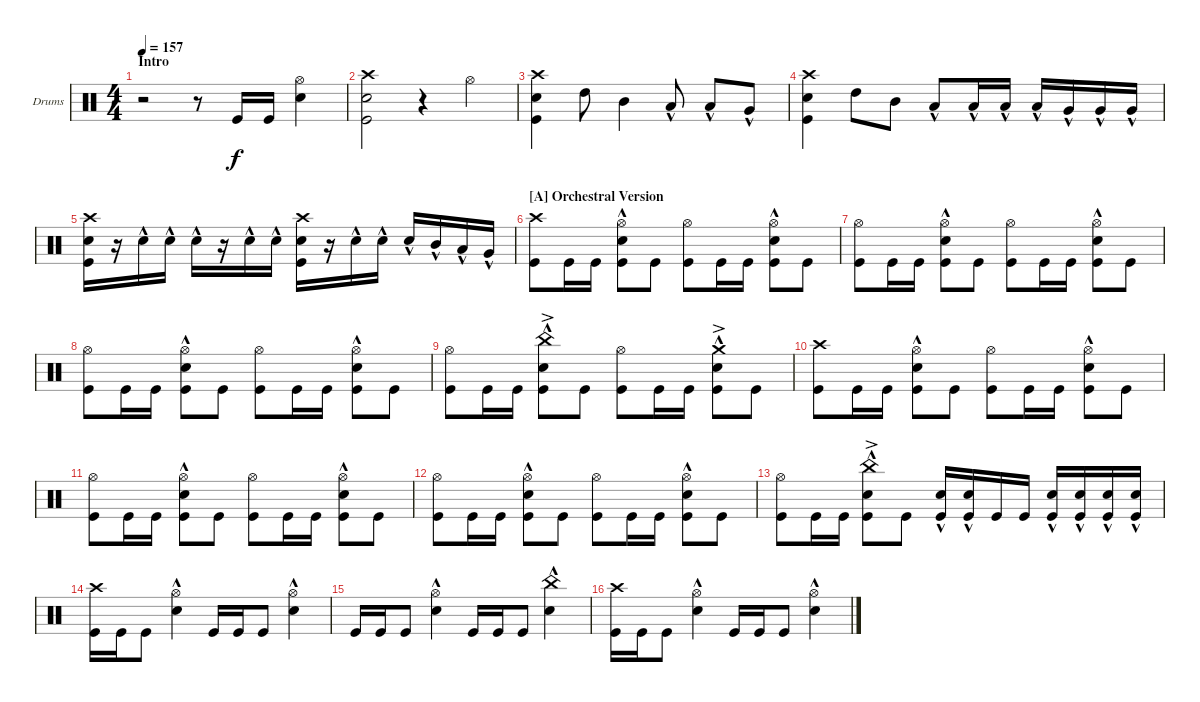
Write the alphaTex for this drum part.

\defaultSystemsLayout 4
\bracketExtendMode groupsimilarinstruments
\firstSystemTrackNameOrientation horizontal
\otherSystemsTrackNameOrientation horizontal
\track ("Drumkit - Natsu" "Drums") {instrument percussion}
\staff {score}
\articulation defaults
\ts (4 4)
\section ("" "Intro")
\tempo 157
\clef neutral
\ks c
r.2{dy f} r.8 "Kick (hit)".16 "Kick (hit)".16 ("Snare (hit) 2" "Hi-Hat (open)").4 |
("Crash high (hit)" "Snare (hit) 2" "Kick (hit)").2 r.4 "Hi-Hat (open)".4 |
("Kick (hit)" "Snare (hit) 2" "Crash high (hit)").4 "High Tom (hit)".8 "Mid Tom (hit)".4 "Low Tom (hit)"{hac}.8 "Low Tom (hit)"{hac}.8 "Very Low Tom (hit)"{hac}.8 |
("Kick (hit)" "Snare (hit) 2" "Crash high (hit)").4 "High Tom (hit)".8 "Mid Tom (hit)".8 "Low Tom (hit)"{hac}.8 "Low Tom (hit)"{hac}.16 "Low Tom (hit)"{hac}.16 "Low Tom (hit)"{hac}.16 "Very Low Tom (hit)"{hac}.16 "Very Low Tom (hit)"{hac}.16 "Very Low Tom (hit)"{hac}.16 |
("Kick (hit)" "Snare (hit) 2" "Crash high (hit)").16 r.16 "Snare (hit) 2"{hac}.16 "Snare (hit) 2"{hac}.16 "Snare (hit) 2"{hac}.16 r.16 "Snare (hit) 2"{hac}.16 "Snare (hit) 2"{hac}.16 ("Snare (hit) 2" "Crash high (hit)" "Kick (hit)").16 r.16 "Snare (hit) 2"{hac}.16 "Snare (hit) 2"{hac}.16 "Snare (hit) 2"{hac}.16 "Mid Tom (hit)"{hac}.16 "Low Tom (hit)"{hac}.16 "Very Low Tom (hit)"{hac}.16 |
\section ("A" "Orchestral Version")
\scale
0.269762 ("Crash high (hit)" "Kick (hit)").8 "Kick (hit)".16 "Kick (hit)".16 ("Snare (hit) 2"{hac} "Hi-Hat (open)" "Kick (hit)").8 "Kick (hit)".8 ("Kick (hit)" "Hi-Hat (open)").8 "Kick (hit)".16 "Kick (hit)".16 ("Snare (hit) 2"{hac} "Hi-Hat (open)" "Kick (hit)").8 "Kick (hit)".8 |
\scale
0.243413 ("Kick (hit)" "Hi-Hat (open)").8 "Kick (hit)".16 "Kick (hit)".16 ("Snare (hit) 2"{hac} "Hi-Hat (open)" "Kick (hit)").8 "Kick (hit)".8 ("Kick (hit)" "Hi-Hat (open)").8 "Kick (hit)".16 "Kick (hit)".16 ("Snare (hit) 2"{hac} "Hi-Hat (open)" "Kick (hit)").8 "Kick (hit)".8 |
\scale
0.243413 ("Kick (hit)" "Hi-Hat (open)").8 "Kick (hit)".16 "Kick (hit)".16 ("Snare (hit) 2"{hac} "Hi-Hat (open)" "Kick (hit)").8 "Kick (hit)".8 ("Kick (hit)" "Hi-Hat (open)").8 "Kick (hit)".16 "Kick (hit)".16 ("Snare (hit) 2"{hac} "Hi-Hat (open)" "Kick (hit)").8 "Kick (hit)".8 |
\scale
0.243413 ("Kick (hit)" "Hi-Hat (open)").8 "Kick (hit)".16 "Kick (hit)".16 ("Snare (hit) 2"{hac} "China (hit)"{ac} "Kick (hit)").8 "Kick (hit)".8 ("Kick (hit)" "Hi-Hat (open)").8 "Kick (hit)".16 "Kick (hit)".16 ("Snare (hit) 2"{hac} "Crash medium (hit)"{ac} "Kick (hit)").8 "Kick (hit)".8 |
("Crash high (hit)" "Kick (hit)").8 "Kick (hit)".16 "Kick (hit)".16 ("Snare (hit) 2"{hac} "Hi-Hat (open)" "Kick (hit)").8 "Kick (hit)".8 ("Kick (hit)" "Hi-Hat (open)").8 "Kick (hit)".16 "Kick (hit)".16 ("Snare (hit) 2"{hac} "Hi-Hat (open)" "Kick (hit)").8 "Kick (hit)".8 |
("Kick (hit)" "Hi-Hat (open)").8 "Kick (hit)".16 "Kick (hit)".16 ("Snare (hit) 2"{hac} "Hi-Hat (open)" "Kick (hit)").8 "Kick (hit)".8 ("Kick (hit)" "Hi-Hat (open)").8 "Kick (hit)".16 "Kick (hit)".16 ("Snare (hit) 2"{hac} "Hi-Hat (open)" "Kick (hit)").8 "Kick (hit)".8 |
("Kick (hit)" "Hi-Hat (open)").8 "Kick (hit)".16 "Kick (hit)".16 ("Snare (hit) 2"{hac} "Hi-Hat (open)" "Kick (hit)").8 "Kick (hit)".8 ("Kick (hit)" "Hi-Hat (open)").8 "Kick (hit)".16 "Kick (hit)".16 ("Snare (hit) 2"{hac} "Hi-Hat (open)" "Kick (hit)").8 "Kick (hit)".8 |
("Kick (hit)" "Hi-Hat (open)").8 "Kick (hit)".16 "Kick (hit)".16 ("Snare (hit) 2"{hac} "China (hit)"{ac} "Kick (hit)").8 "Kick (hit)".8 ("Snare (hit) 2"{hac} "Kick (hit)").16 ("Snare (hit) 2"{hac} "Kick (hit)").16 "Kick (hit)".16 "Kick (hit)".16 ("Snare (hit) 2"{hac} "Kick (hit)").16 ("Snare (hit) 2"{hac} "Kick (hit)").16 ("Snare (hit) 2"{hac} "Kick (hit)").16 ("Snare (hit) 2"{hac} "Kick (hit)").16 |
("Kick (hit)" "Crash high (hit)").16 "Kick (hit)".16 "Kick (hit)".8 ("Snare (hit) 2"{hac} "Hi-Hat (open)").4 "Kick (hit)".16 "Kick (hit)".16 "Kick (hit)".8 ("Snare (hit) 2"{hac} "Hi-Hat (open)").4 |
"Kick (hit)".16 "Kick (hit)".16 "Kick (hit)".8 ("Snare (hit) 2"{hac} "Hi-Hat (open)").4 "Kick (hit)".16 "Kick (hit)".16 "Kick (hit)".8 ("Snare (hit) 2"{hac} "China (hit)"{hac}).4 |
("Kick (hit)" "Crash high (hit)").16 "Kick (hit)".16 "Kick (hit)".8 ("Snare (hit) 2"{hac} "Hi-Hat (open)").4 "Kick (hit)".16 "Kick (hit)".16 "Kick (hit)".8 ("Snare (hit) 2"{hac} "Hi-Hat (open)").4
